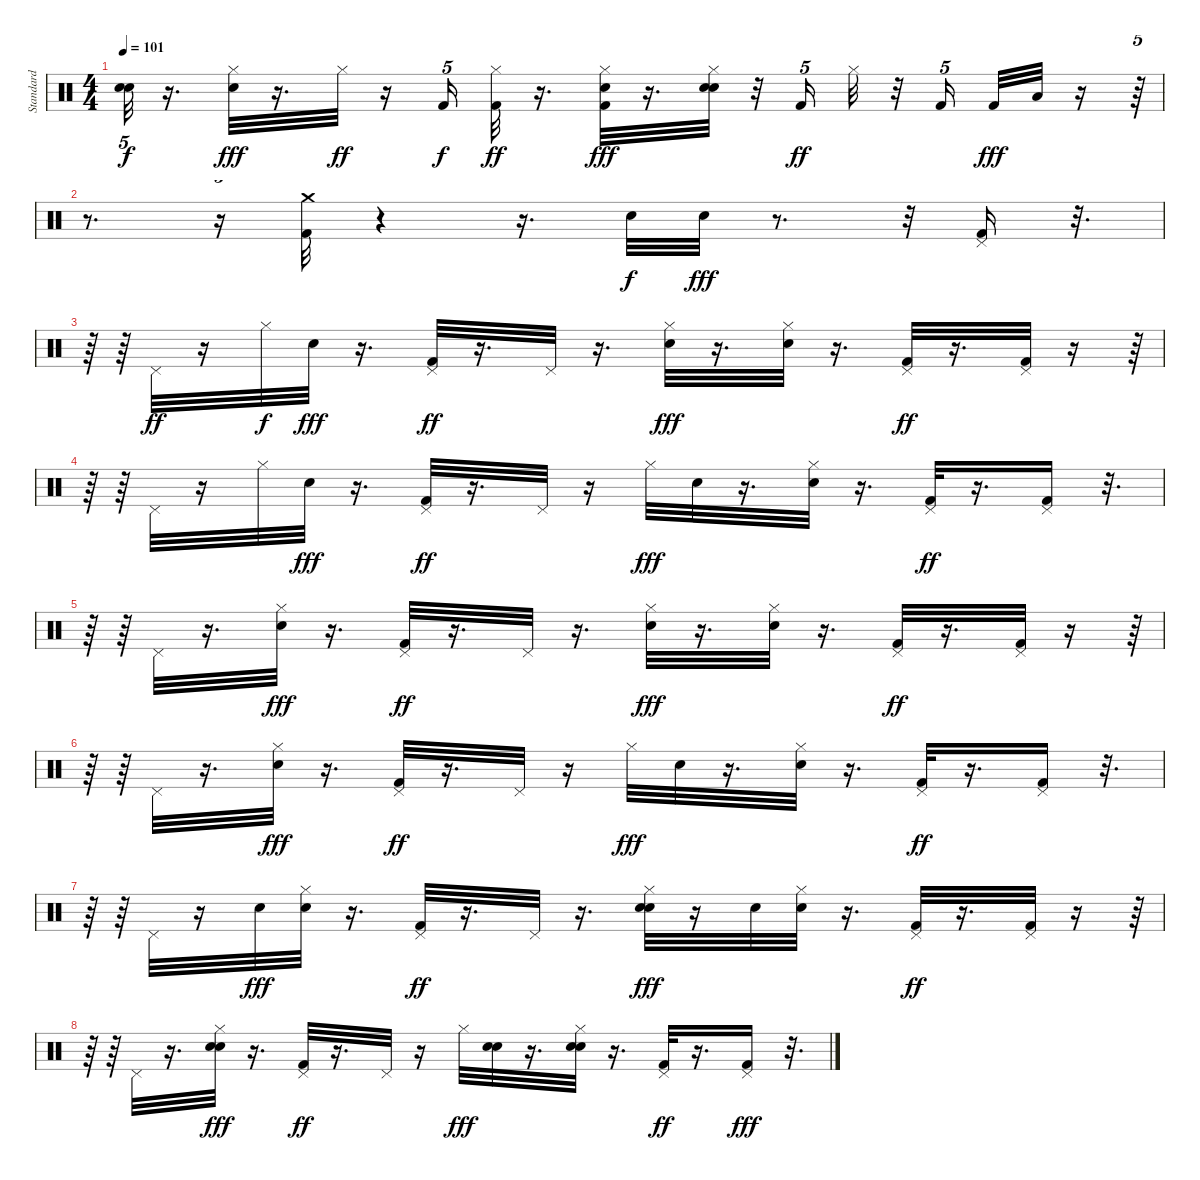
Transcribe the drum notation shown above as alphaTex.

\track (" Standard" " Standard") {instrument percussion}
\staff {score}
\articulation defaults
\ts (4 4)
\tempo 101
\clef neutral
\ks c
("Snare (hit)"{t} "Snare (hit)"{t}).32{tu (5 4) dy f} r.16{d} ("Hi-Hat (closed)" "Electric Snare (hit)").32{dy fff} r.16{d} "Hi-Hat (closed)".32{dy ff} r.16 "Kick (hit) 2".16{tu (5 4) dy f} ("Hi-Hat (closed)" "Kick (hit) 2").32{dy ff} r.16{d} ("Hi-Hat (closed)" "Kick (hit) 2" "Hand Clap (hit)").32{dy fff} r.16{d} ("Electric Snare (hit)" "Hi-Hat (closed)" "Hand Clap (hit)").32 r.32 "Kick (hit) 2".16{tu (5 4) dy ff} "Hi-Hat (closed)".32 r.32 "Kick (hit) 2".16{tu (5 4) beam splitsecondary} "Kick (hit) 2".32{dy fff} "Low Tom (hit)".32 r.16 r.64{tu (5 4)} |
r.8{d} r.16{tu (5 4)} ("Crash medium (hit)" "Kick (hit) 2").32 r.4 r.16{d} "Electric Snare (hit)".32{dy f} "Electric Snare (hit)".32{dy fff} r.8{d} r.32 ("Pedal Hi-Hat (hit)" "Kick (hit) 2").16 r.32{d} |
r.64 r.64 "Pedal Hi-Hat (hit)".32{dy ff} r.16 "Hi-Hat (closed)".32{dy f} "Electric Snare (hit)".32{dy fff} r.16{d} ("Kick (hit) 2" "Pedal Hi-Hat (hit)").32{dy ff} r.16{d} "Pedal Hi-Hat (hit)".32 r.16{d} ("Electric Snare (hit)" "Hi-Hat (closed)").32{dy fff} r.16{d} ("Electric Snare (hit)" "Hi-Hat (closed)").32 r.16{d} ("Kick (hit) 2" "Pedal Hi-Hat (hit)").32{dy ff} r.16{d} ("Kick (hit) 2" "Pedal Hi-Hat (hit)").32 r.16 r.64{tu (5 4)} |
r.64 r.64 "Pedal Hi-Hat (hit)".32 r.16 "Hi-Hat (closed)".32 "Electric Snare (hit)".32{dy fff} r.16{d} ("Kick (hit) 2" "Pedal Hi-Hat (hit)").32{dy ff} r.16{d} "Pedal Hi-Hat (hit)".32 r.16 "Hi-Hat (closed)".32{dy fff} "Electric Snare (hit)".32 r.16{d} ("Electric Snare (hit)" "Hi-Hat (closed)").32 r.16{d} ("Kick (hit) 2" "Pedal Hi-Hat (hit)").32{dy ff} r.16{d} ("Kick (hit) 2" "Pedal Hi-Hat (hit)").16 r.32{d} |
r.64 r.64 "Pedal Hi-Hat (hit)".32 r.16{d} ("Hi-Hat (closed)" "Electric Snare (hit)").32{dy fff} r.16{d} ("Kick (hit) 2" "Pedal Hi-Hat (hit)").32{dy ff} r.16{d} "Pedal Hi-Hat (hit)".32 r.16{d} ("Electric Snare (hit)" "Hi-Hat (closed)").32{dy fff} r.16{d} ("Electric Snare (hit)" "Hi-Hat (closed)").32 r.16{d} ("Kick (hit) 2" "Pedal Hi-Hat (hit)").32{dy ff} r.16{d} ("Kick (hit) 2" "Pedal Hi-Hat (hit)").32 r.16 r.64{tu (5 4)} |
r.64 r.64 "Pedal Hi-Hat (hit)".32 r.16{d} ("Electric Snare (hit)" "Hi-Hat (closed)").32{dy fff} r.16{d} ("Kick (hit) 2" "Pedal Hi-Hat (hit)").32{dy ff} r.16{d} "Pedal Hi-Hat (hit)".32 r.16 "Hi-Hat (closed)".32{dy fff} "Electric Snare (hit)".32 r.16{d} ("Electric Snare (hit)" "Hi-Hat (closed)").32 r.16{d} ("Kick (hit) 2" "Pedal Hi-Hat (hit)").32{dy ff} r.16{d} ("Kick (hit) 2" "Pedal Hi-Hat (hit)").16 r.32{d} |
r.64 r.64 "Pedal Hi-Hat (hit)".32 r.16 "Hand Clap (hit)".32{dy fff} ("Hi-Hat (closed)" "Electric Snare (hit)").32 r.16{d} ("Kick (hit) 2" "Pedal Hi-Hat (hit)").32{dy ff} r.16{d} "Pedal Hi-Hat (hit)".32 r.16{d} ("Electric Snare (hit)" "Hi-Hat (closed)" "Hand Clap (hit)").32{dy fff} r.16 "Hand Clap (hit)".32 ("Electric Snare (hit)" "Hi-Hat (closed)").32 r.16{d} ("Kick (hit) 2" "Pedal Hi-Hat (hit)").32{dy ff} r.16{d} ("Kick (hit) 2" "Pedal Hi-Hat (hit)").32 r.16 r.64{tu (5 4)} |
r.64 r.64 "Pedal Hi-Hat (hit)".32 r.16{d} ("Hand Clap (hit)" "Electric Snare (hit)" "Hi-Hat (closed)").32{dy fff} r.16{d} ("Kick (hit) 2" "Pedal Hi-Hat (hit)").32{dy ff} r.16{d} "Pedal Hi-Hat (hit)".32 r.16 "Hi-Hat (closed)".32{dy fff} ("Electric Snare (hit)" "Hand Clap (hit)").32 r.16{d} ("Electric Snare (hit)" "Hi-Hat (closed)" "Hand Clap (hit)").32 r.16{d} ("Kick (hit) 2" "Pedal Hi-Hat (hit)").32{dy ff} r.16{d} ("Pedal Hi-Hat (hit)" "Kick (hit) 2").16{dy fff} r.32{d}
